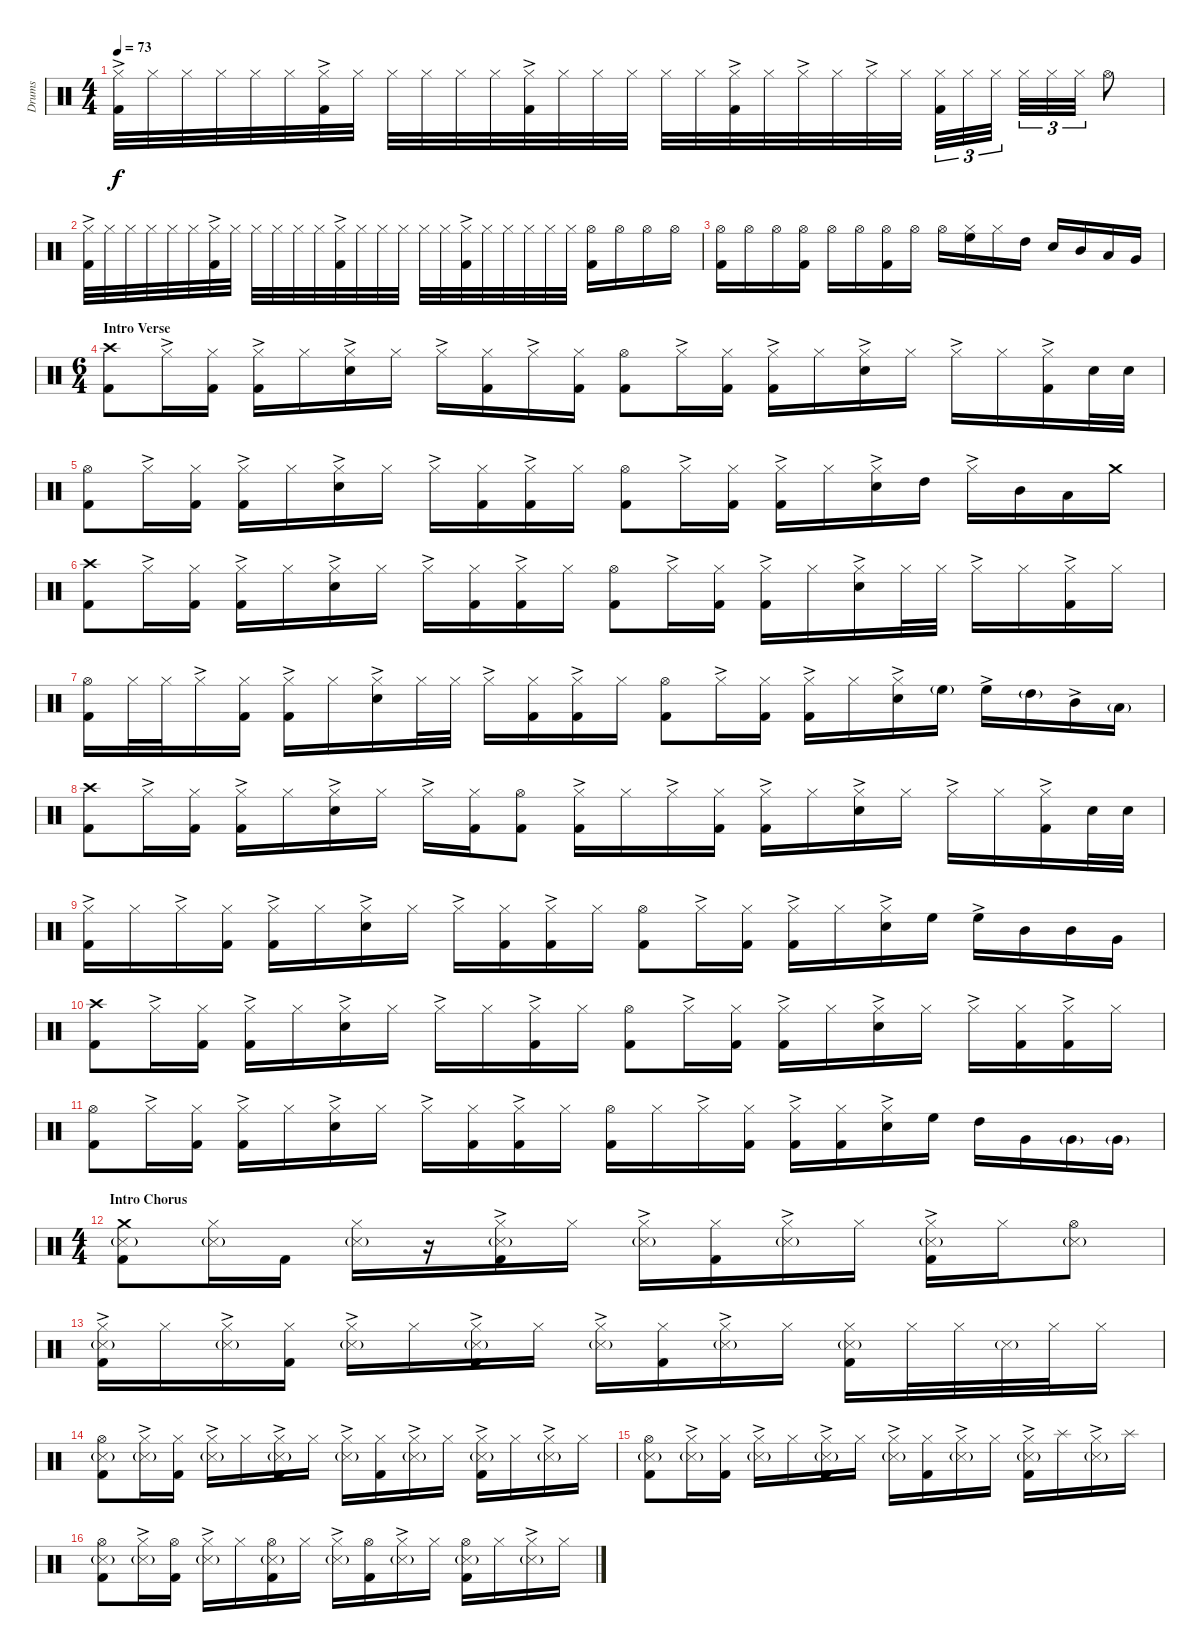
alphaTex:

\track ("Drums" "Drums") {instrument percussion}
\staff {score}
\articulation defaults
\ts (4 4)
\tempo 73
\clef neutral
\ks c
("Hi-Hat (closed)"{ac} "Kick (hit) 2").32{dy f} "Hi-Hat (closed)".32 "Hi-Hat (closed)".32 "Hi-Hat (closed)".32 "Hi-Hat (closed)".32 "Hi-Hat (closed)".32 ("Hi-Hat (closed)"{ac} "Kick (hit) 2").32 "Hi-Hat (closed)".32 "Hi-Hat (closed)".32 "Hi-Hat (closed)".32 "Hi-Hat (closed)".32 "Hi-Hat (closed)".32 ("Hi-Hat (closed)"{ac} "Kick (hit) 2").32 "Hi-Hat (closed)".32 "Hi-Hat (closed)".32 "Hi-Hat (closed)".32 "Hi-Hat (closed)".32 "Hi-Hat (closed)".32 ("Hi-Hat (closed)"{ac} "Kick (hit) 2").32 "Hi-Hat (closed)".32 "Hi-Hat (closed)"{ac}.32 "Hi-Hat (closed)".32 "Hi-Hat (closed)"{ac}.32 "Hi-Hat (closed)".32 ("Hi-Hat (closed)" "Kick (hit) 2").32{tu (3 2)} "Hi-Hat (closed)".32{tu (3 2)} "Hi-Hat (closed)".32{tu (3 2)} "Hi-Hat (closed)".32{tu (3 2)} "Hi-Hat (closed)".32{tu (3 2)} "Hi-Hat (closed)".32{tu (3 2)} "Hi-Hat (open)".8 |
("Hi-Hat (closed)"{ac} "Kick (hit) 2").32 "Hi-Hat (closed)".32 "Hi-Hat (closed)".32 "Hi-Hat (closed)".32 "Hi-Hat (closed)".32 "Hi-Hat (closed)".32 ("Hi-Hat (closed)"{ac} "Kick (hit) 2").32 "Hi-Hat (closed)".32 "Hi-Hat (closed)".32 "Hi-Hat (closed)".32 "Hi-Hat (closed)".32 "Hi-Hat (closed)".32 ("Hi-Hat (closed)"{ac} "Kick (hit) 2").32 "Hi-Hat (closed)".32 "Hi-Hat (closed)".32 "Hi-Hat (closed)".32 "Hi-Hat (closed)".32 "Hi-Hat (closed)".32 ("Hi-Hat (closed)"{ac} "Kick (hit) 2").32 "Hi-Hat (closed)".32 "Hi-Hat (closed)".32 "Hi-Hat (closed)".32 "Hi-Hat (closed)".32 "Hi-Hat (closed)".32 ("Hi-Hat (open)" "Kick (hit) 2").16 "Hi-Hat (open)".16 "Hi-Hat (open)".16 "Hi-Hat (open)".16 |
("Hi-Hat (open)" "Kick (hit) 2").16 "Hi-Hat (open)".16 "Hi-Hat (open)".16 ("Hi-Hat (open)" "Kick (hit) 2").16 "Hi-Hat (open)".16 "Hi-Hat (open)".16 ("Hi-Hat (open)" "Kick (hit) 2").16 "Hi-Hat (open)".16 "Hi-Hat (open)".16 ("Hi-Hat (closed)" "High Floor Tom (hit)").16 "Hi-Hat (closed)".16 "High Tom (hit)".16 "Snare (hit) 2".16 "Mid Tom (hit)".16 "Low Tom (hit)".16 "Very Low Tom (hit)".16 |
\ts (6 4)
\section ("" "Intro Verse")
("Crash high (hit)" "Kick (hit) 2").8 "Hi-Hat (closed)"{ac}.16 ("Hi-Hat (closed)" "Kick (hit) 2").16 ("Hi-Hat (closed)"{ac} "Kick (hit) 2").16 "Hi-Hat (closed)".16 ("Hi-Hat (closed)"{ac} "Snare (hit) 2").16 "Hi-Hat (closed)".16 "Hi-Hat (closed)"{ac}.16 ("Hi-Hat (closed)" "Kick (hit) 2").16 "Hi-Hat (closed)"{ac}.16 ("Hi-Hat (closed)" "Kick (hit) 2").16 ("Hi-Hat (open)" "Kick (hit) 2").8 "Hi-Hat (closed)"{ac}.16 ("Hi-Hat (closed)" "Kick (hit) 2").16 ("Hi-Hat (closed)"{ac} "Kick (hit) 2").16 "Hi-Hat (closed)".16 ("Hi-Hat (closed)"{ac} "Snare (hit) 2").16 "Hi-Hat (closed)".16 "Hi-Hat (closed)"{ac}.16 "Hi-Hat (closed)".16 ("Hi-Hat (closed)"{ac} "Kick (hit) 2").16 "Snare (hit) 2".32 "Snare (hit) 2".32 |
("Hi-Hat (open)" "Kick (hit) 2").8 "Hi-Hat (closed)"{ac}.16 ("Hi-Hat (closed)" "Kick (hit) 2").16 ("Hi-Hat (closed)"{ac} "Kick (hit) 2").16 "Hi-Hat (closed)".16 ("Hi-Hat (closed)"{ac} "Snare (hit) 2").16 "Hi-Hat (closed)".16 "Hi-Hat (closed)"{ac}.16 ("Hi-Hat (closed)" "Kick (hit) 2").16 ("Hi-Hat (closed)"{ac} "Kick (hit) 2").16 "Hi-Hat (closed)".16 ("Hi-Hat (open)" "Kick (hit) 2").8 "Hi-Hat (closed)"{ac}.16 ("Hi-Hat (closed)" "Kick (hit) 2").16 ("Hi-Hat (closed)"{ac} "Kick (hit) 2").16 "Hi-Hat (closed)".16 ("Hi-Hat (closed)"{ac} "Snare (hit) 2").16 "High Tom (hit)".16 "Hi-Hat (closed)"{ac}.16 "Mid Tom (hit)".16 "Low Tom (hit)".16 "Crash medium (hit)".16 |
("Crash high (hit)" "Kick (hit) 2").8 "Hi-Hat (closed)"{ac}.16 ("Hi-Hat (closed)" "Kick (hit) 2").16 ("Hi-Hat (closed)"{ac} "Kick (hit) 2").16 "Hi-Hat (closed)".16 ("Hi-Hat (closed)"{ac} "Snare (hit) 2").16 "Hi-Hat (closed)".16 "Hi-Hat (closed)"{ac}.16 ("Hi-Hat (closed)" "Kick (hit) 2").16 ("Hi-Hat (closed)"{ac} "Kick (hit) 2").16 "Hi-Hat (closed)".16 ("Hi-Hat (open)" "Kick (hit) 2").8 "Hi-Hat (closed)"{ac}.16 ("Hi-Hat (closed)" "Kick (hit) 2").16 ("Hi-Hat (closed)"{ac} "Kick (hit) 2").16 "Hi-Hat (closed)".16 ("Hi-Hat (closed)"{ac} "Snare (hit) 2").16 "Hi-Hat (closed)".32 "Hi-Hat (closed)".32 "Hi-Hat (closed)"{ac}.16 "Hi-Hat (closed)".16 ("Hi-Hat (closed)"{ac} "Kick (hit) 2").16 "Hi-Hat (closed)".16 |
("Hi-Hat (open)" "Kick (hit) 2").16 "Hi-Hat (closed)".32 "Hi-Hat (closed)".32 "Hi-Hat (closed)"{ac}.16 ("Hi-Hat (closed)" "Kick (hit) 2").16 ("Hi-Hat (closed)"{ac} "Kick (hit) 2").16 "Hi-Hat (closed)".16 ("Hi-Hat (closed)"{ac} "Snare (hit) 2").16 "Hi-Hat (closed)".32 "Hi-Hat (closed)".32 "Hi-Hat (closed)"{ac}.16 ("Hi-Hat (closed)" "Kick (hit) 2").16 ("Hi-Hat (closed)"{ac} "Kick (hit) 2").16 "Hi-Hat (closed)".16 ("Hi-Hat (open)" "Kick (hit) 2").8 "Hi-Hat (closed)"{ac}.16 ("Hi-Hat (closed)" "Kick (hit) 2").16 ("Hi-Hat (closed)"{ac} "Kick (hit) 2").16 "Hi-Hat (closed)".16 ("Hi-Hat (closed)"{ac} "Snare (hit) 2").16 "High Floor Tom (hit)"{g}.16 "High Floor Tom (hit)"{ac}.16 "High Tom (hit)"{g}.16 "Mid Tom (hit)"{ac}.16 "Low Tom (hit)"{g}.16 |
("Crash high (hit)" "Kick (hit) 2").8 "Hi-Hat (closed)"{ac}.16 ("Hi-Hat (closed)" "Kick (hit) 2").16 ("Hi-Hat (closed)"{ac} "Kick (hit) 2").16 "Hi-Hat (closed)".16 ("Hi-Hat (closed)"{ac} "Snare (hit) 2").16 "Hi-Hat (closed)".16 "Hi-Hat (closed)"{ac}.16 ("Hi-Hat (closed)" "Kick (hit) 2").16 ("Hi-Hat (open)" "Kick (hit) 2").8 ("Hi-Hat (closed)"{ac} "Kick (hit) 2").16 "Hi-Hat (closed)".16 "Hi-Hat (closed)"{ac}.16 ("Hi-Hat (closed)" "Kick (hit) 2").16 ("Hi-Hat (closed)"{ac} "Kick (hit) 2").16 "Hi-Hat (closed)".16 ("Hi-Hat (closed)"{ac} "Snare (hit) 2").16 "Hi-Hat (closed)".16 "Hi-Hat (closed)"{ac}.16 "Hi-Hat (closed)".16 ("Hi-Hat (closed)"{ac} "Kick (hit) 2").16 "Snare (hit) 2".32 "Snare (hit) 2".32 |
("Hi-Hat (closed)"{ac} "Kick (hit) 2").16 "Hi-Hat (closed)".16 "Hi-Hat (closed)"{ac}.16 ("Hi-Hat (closed)" "Kick (hit) 2").16 ("Hi-Hat (closed)"{ac} "Kick (hit) 2").16 "Hi-Hat (closed)".16 ("Hi-Hat (closed)"{ac} "Snare (hit) 2").16 "Hi-Hat (closed)".16 "Hi-Hat (closed)"{ac}.16 ("Hi-Hat (closed)" "Kick (hit) 2").16 ("Hi-Hat (closed)"{ac} "Kick (hit) 2").16 "Hi-Hat (closed)".16 ("Hi-Hat (open)" "Kick (hit) 2").8 "Hi-Hat (closed)"{ac}.16 ("Hi-Hat (closed)" "Kick (hit) 2").16 ("Hi-Hat (closed)"{ac} "Kick (hit) 2").16 "Hi-Hat (closed)".16 ("Hi-Hat (closed)"{ac} "Snare (hit) 2").16 "High Floor Tom (hit)".16 "High Floor Tom (hit)"{ac}.16 "Mid Tom (hit)".16 "Mid Tom (hit)".16 "Very Low Tom (hit)".16 |
("Crash high (hit)" "Kick (hit) 2").8 "Hi-Hat (closed)"{ac}.16 ("Hi-Hat (closed)" "Kick (hit) 2").16 ("Hi-Hat (closed)"{ac} "Kick (hit) 2").16 "Hi-Hat (closed)".16 ("Hi-Hat (closed)"{ac} "Snare (hit) 2").16 "Hi-Hat (closed)".16 "Hi-Hat (closed)"{ac}.16 "Hi-Hat (closed)".16 ("Hi-Hat (closed)"{ac} "Kick (hit) 2").16 "Hi-Hat (closed)".16 ("Hi-Hat (open)" "Kick (hit) 2").8 "Hi-Hat (closed)"{ac}.16 ("Hi-Hat (closed)" "Kick (hit) 2").16 ("Hi-Hat (closed)"{ac} "Kick (hit) 2").16 "Hi-Hat (closed)".16 ("Hi-Hat (closed)"{ac} "Snare (hit) 2").16 "Hi-Hat (closed)".16 "Hi-Hat (closed)"{ac}.16 ("Hi-Hat (closed)" "Kick (hit) 2").16 ("Hi-Hat (closed)"{ac} "Kick (hit) 2").16 "Hi-Hat (closed)".16 |
("Hi-Hat (open)" "Kick (hit) 2").8 "Hi-Hat (closed)"{ac}.16 ("Hi-Hat (closed)" "Kick (hit) 2").16 ("Hi-Hat (closed)"{ac} "Kick (hit) 2").16 "Hi-Hat (closed)".16 ("Hi-Hat (closed)"{ac} "Snare (hit) 2").16 "Hi-Hat (closed)".16 "Hi-Hat (closed)"{ac}.16 ("Hi-Hat (closed)" "Kick (hit) 2").16 ("Hi-Hat (closed)"{ac} "Kick (hit) 2").16 "Hi-Hat (closed)".16 ("Hi-Hat (open)" "Kick (hit) 2").16 "Hi-Hat (closed)".16 "Hi-Hat (closed)"{ac}.16 ("Hi-Hat (closed)" "Kick (hit) 2").16 ("Hi-Hat (closed)"{ac} "Kick (hit) 2").16 ("Hi-Hat (closed)" "Kick (hit) 2").16 ("Hi-Hat (closed)"{ac} "Snare (hit) 2").16 "High Floor Tom (hit)".16 "High Tom (hit)".16 "Very Low Tom (hit)".16 "Very Low Tom (hit)"{g}.16 "Very Low Tom (hit)"{g}.16 |
\ts (4 4)
\section ("" "Intro Chorus")
("Crash medium (hit)" "Snare (side stick) 3"{g} "Kick (hit) 2").8 ("Hi-Hat (closed)" "Snare (side stick) 3"{g}).16 "Kick (hit) 2".16 ("Hi-Hat (closed)" "Snare (side stick) 3"{g}).16 r.16 ("Hi-Hat (closed)"{ac} "Snare (side stick) 3"{g} "Kick (hit) 2").16 "Hi-Hat (closed)".16 ("Hi-Hat (closed)"{ac} "Snare (side stick) 3"{g}).16 ("Hi-Hat (closed)" "Kick (hit) 2").16 ("Hi-Hat (closed)"{ac} "Snare (side stick) 3"{g}).16 "Hi-Hat (closed)".16 ("Hi-Hat (closed)"{ac} "Snare (side stick) 3"{g} "Kick (hit) 2").16 "Hi-Hat (closed)".16 ("Hi-Hat (open)" "Snare (side stick) 3"{g}).8 |
("Hi-Hat (closed)"{ac} "Snare (side stick) 3"{g} "Kick (hit) 2").16 "Hi-Hat (closed)".16 ("Hi-Hat (closed)"{ac} "Snare (side stick) 3"{g}).16 ("Hi-Hat (closed)" "Kick (hit) 2").16 ("Hi-Hat (closed)"{ac} "Snare (side stick) 3"{g}).16 "Hi-Hat (closed)".16 ("Hi-Hat (closed)"{ac} "Snare (side stick) 3"{g} "Kick (hit) 2").16 "Hi-Hat (closed)".16 ("Hi-Hat (closed)"{ac} "Snare (side stick) 3"{g}).16 ("Hi-Hat (closed)" "Kick (hit) 2").16 ("Hi-Hat (closed)"{ac} "Snare (side stick) 3"{g}).16 "Hi-Hat (closed)".16 ("Hi-Hat (closed)" "Snare (side stick) 3"{g} "Kick (hit) 2").16 "Hi-Hat (closed)".32 "Hi-Hat (closed)".32 "Snare (side stick) 3"{g}.32 "Hi-Hat (closed)".32 "Hi-Hat (closed)".16 |
("Hi-Hat (open)" "Snare (side stick) 3"{g} "Kick (hit) 2").8 ("Hi-Hat (closed)"{ac} "Snare (side stick) 3"{g}).16 ("Hi-Hat (closed)" "Kick (hit) 2").16 ("Hi-Hat (closed)"{ac} "Snare (side stick) 3"{g}).16 "Hi-Hat (closed)".16 ("Hi-Hat (closed)"{ac} "Snare (side stick) 3"{g} "Kick (hit) 2").16 "Hi-Hat (closed)".16 ("Hi-Hat (closed)"{ac} "Snare (side stick) 3"{g}).16 ("Hi-Hat (closed)" "Kick (hit) 2").16 ("Hi-Hat (closed)"{ac} "Snare (side stick) 3"{g}).16 "Hi-Hat (closed)".16 ("Hi-Hat (closed)"{ac} "Snare (side stick) 3"{g} "Kick (hit) 2").16 "Hi-Hat (closed)".16 ("Hi-Hat (closed)"{ac} "Snare (side stick) 3"{g}).16 "Hi-Hat (closed)".16 |
("Hi-Hat (open)" "Snare (side stick) 3"{g} "Kick (hit) 2").8 ("Hi-Hat (closed)"{ac} "Snare (side stick) 3"{g}).16 ("Hi-Hat (closed)" "Kick (hit) 2").16 ("Hi-Hat (closed)"{ac} "Snare (side stick) 3"{g}).16 "Hi-Hat (closed)".16 ("Hi-Hat (closed)"{ac} "Snare (side stick) 3"{g} "Kick (hit) 2").16 "Hi-Hat (closed)".16 ("Hi-Hat (closed)"{ac} "Snare (side stick) 3"{g}).16 ("Hi-Hat (closed)" "Kick (hit) 2").16 ("Hi-Hat (closed)"{ac} "Snare (side stick) 3"{g}).16 "Hi-Hat (closed)".16 ("Hi-Hat (closed)"{ac} "Snare (side stick) 3"{g} "Kick (hit) 2").16 "Splash (hit)".16 ("Hi-Hat (closed)"{ac} "Snare (side stick) 3"{g}).16 "Splash (hit)".16 |
("Hi-Hat (open)" "Snare (side stick) 3"{g} "Kick (hit) 2").8 ("Hi-Hat (closed)"{ac} "Snare (side stick) 3"{g}).16 ("Hi-Hat (open)" "Kick (hit) 2").16 ("Hi-Hat (closed)"{ac} "Snare (side stick) 3"{g}).16 "Hi-Hat (closed)".16 ("Hi-Hat (open)" "Snare (side stick) 3"{g} "Kick (hit) 2").16 "Hi-Hat (closed)".16 ("Hi-Hat (closed)"{ac} "Snare (side stick) 3"{g}).16 ("Hi-Hat (open)" "Kick (hit) 2").16 ("Hi-Hat (closed)"{ac} "Snare (side stick) 3"{g}).16 "Hi-Hat (closed)".16 ("Hi-Hat (open)" "Snare (side stick) 3"{g} "Kick (hit) 2").16 "Hi-Hat (closed)".16 ("Hi-Hat (closed)"{ac} "Snare (side stick) 3"{g}).16 "Hi-Hat (closed)".16
